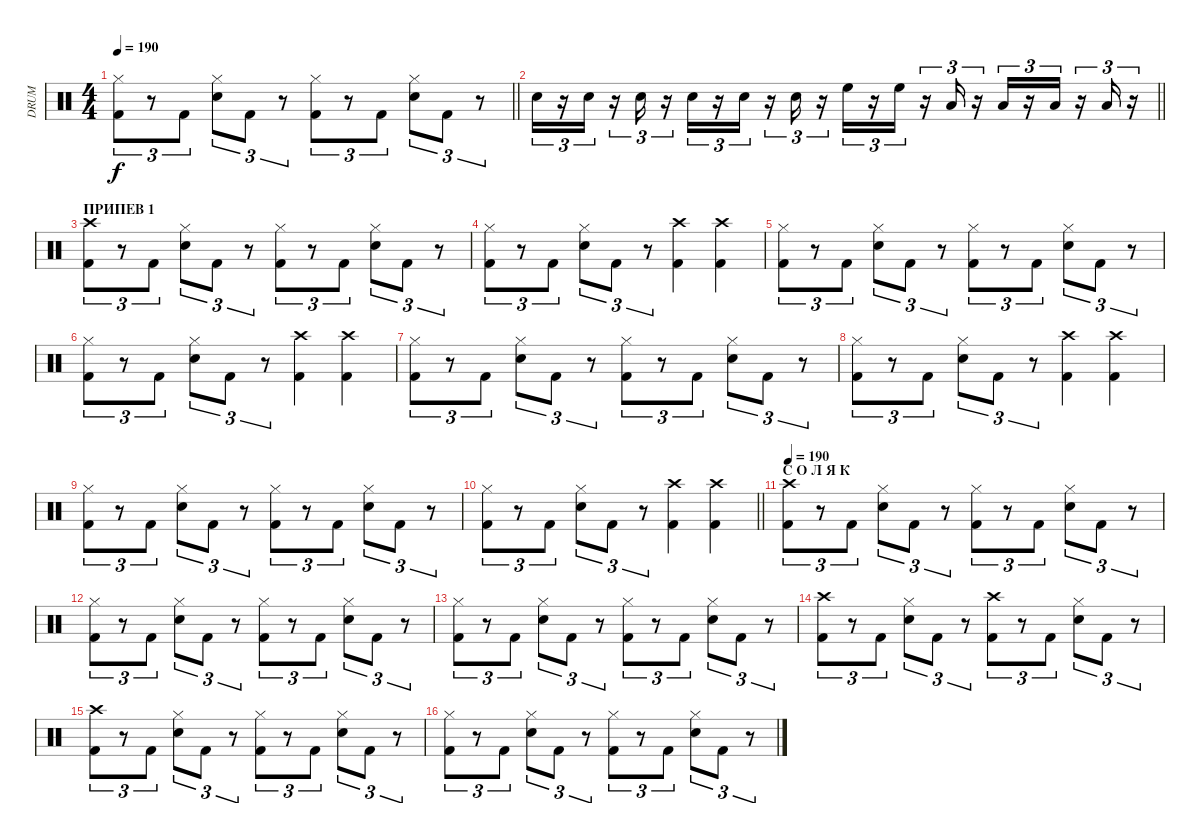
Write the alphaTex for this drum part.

\track ("DRUM" "DRUM") {instrument percussion bank 127}
\staff {score}
\articulation defaults
\ts (4 4)
\tempo 190
\clef neutral
\barLineRight lightlight
\ks c
("Hi-Hat (closed)" "Kick (hit) 2").8{tu (3 2) dy f} r.8{tu (3 2)} "Kick (hit) 2".8{tu (3 2)} ("Hi-Hat (closed)" "Electric Snare (hit)").8{tu (3 2)} "Kick (hit) 2".8{tu (3 2)} r.8{tu (3 2)} ("Hi-Hat (closed)" "Kick (hit) 2").8{tu (3 2)} r.8{tu (3 2)} "Kick (hit) 2".8{tu (3 2)} ("Hi-Hat (closed)" "Electric Snare (hit)").8{tu (3 2)} "Kick (hit) 2".8{tu (3 2)} r.8{tu (3 2)} |
\barLineRight lightlight "Electric Snare (hit)".16{tu (3 2)}
r.16{tu (3 2)} "Electric Snare (hit)".16{tu (3 2)} r.16{tu (3 2)} "Electric Snare (hit)".16{tu (3 2)} r.16{tu (3 2)} "Electric Snare (hit)".16{tu (3 2)} r.16{tu (3 2)} "Electric Snare (hit)".16{tu (3 2)} r.16{tu (3 2)} "Electric Snare (hit)".16{tu (3 2)} r.16{tu (3 2)} "High Floor Tom (hit)".16{tu (3 2)} r.16{tu (3 2)} "High Floor Tom (hit)".16{tu (3 2)} r.16{tu (3 2)} "Low Tom (hit)".16{tu (3 2)} r.16{tu (3 2)} "Low Tom (hit)".16{tu (3 2)} r.16{tu (3 2)} "Low Tom (hit)".16{tu (3 2)} r.16{tu (3 2)} "Low Tom (hit)".16{tu (3 2)} r.16{tu (3 2)} |
\section ("" "ПРИПЕВ 1")
("Crash high (hit)" "Kick (hit) 2").8{tu (3 2)} r.8{tu (3 2)} "Kick (hit) 2".8{tu (3 2)} ("Hi-Hat (closed)" "Electric Snare (hit)").8{tu (3 2)} "Kick (hit) 2".8{tu (3 2)} r.8{tu (3 2)} ("Hi-Hat (closed)" "Kick (hit) 2").8{tu (3 2)} r.8{tu (3 2)} "Kick (hit) 2".8{tu (3 2)} ("Hi-Hat (closed)" "Electric Snare (hit)").8{tu (3 2)} "Kick (hit) 2".8{tu (3 2)} r.8{tu (3 2)} |
("Hi-Hat (closed)" "Kick (hit) 2").8{tu (3 2)} r.8{tu (3 2)} "Kick (hit) 2".8{tu (3 2)} ("Hi-Hat (closed)" "Electric Snare (hit)").8{tu (3 2)} "Kick (hit) 2".8{tu (3 2)} r.8{tu (3 2)} ("Crash high (hit)" "Kick (hit) 2").4 ("Crash high (hit)" "Kick (hit) 2").4 |
("Hi-Hat (closed)" "Kick (hit) 2").8{tu (3 2)} r.8{tu (3 2)} "Kick (hit) 2".8{tu (3 2)} ("Hi-Hat (closed)" "Electric Snare (hit)").8{tu (3 2)} "Kick (hit) 2".8{tu (3 2)} r.8{tu (3 2)} ("Hi-Hat (closed)" "Kick (hit) 2").8{tu (3 2)} r.8{tu (3 2)} "Kick (hit) 2".8{tu (3 2)} ("Hi-Hat (closed)" "Electric Snare (hit)").8{tu (3 2)} "Kick (hit) 2".8{tu (3 2)} r.8{tu (3 2)} |
("Hi-Hat (closed)" "Kick (hit) 2").8{tu (3 2)} r.8{tu (3 2)} "Kick (hit) 2".8{tu (3 2)} ("Hi-Hat (closed)" "Electric Snare (hit)").8{tu (3 2)} "Kick (hit) 2".8{tu (3 2)} r.8{tu (3 2)} ("Crash high (hit)" "Kick (hit) 2").4 ("Crash high (hit)" "Kick (hit) 2").4 |
("Hi-Hat (closed)" "Kick (hit) 2").8{tu (3 2)} r.8{tu (3 2)} "Kick (hit) 2".8{tu (3 2)} ("Hi-Hat (closed)" "Electric Snare (hit)").8{tu (3 2)} "Kick (hit) 2".8{tu (3 2)} r.8{tu (3 2)} ("Hi-Hat (closed)" "Kick (hit) 2").8{tu (3 2)} r.8{tu (3 2)} "Kick (hit) 2".8{tu (3 2)} ("Hi-Hat (closed)" "Electric Snare (hit)").8{tu (3 2)} "Kick (hit) 2".8{tu (3 2)} r.8{tu (3 2)} |
("Hi-Hat (closed)" "Kick (hit) 2").8{tu (3 2)} r.8{tu (3 2)} "Kick (hit) 2".8{tu (3 2)} ("Hi-Hat (closed)" "Electric Snare (hit)").8{tu (3 2)} "Kick (hit) 2".8{tu (3 2)} r.8{tu (3 2)} ("Crash high (hit)" "Kick (hit) 2").4 ("Crash high (hit)" "Kick (hit) 2").4 |
("Hi-Hat (closed)" "Kick (hit) 2").8{tu (3 2)} r.8{tu (3 2)} "Kick (hit) 2".8{tu (3 2)} ("Hi-Hat (closed)" "Electric Snare (hit)").8{tu (3 2)} "Kick (hit) 2".8{tu (3 2)} r.8{tu (3 2)} ("Hi-Hat (closed)" "Kick (hit) 2").8{tu (3 2)} r.8{tu (3 2)} "Kick (hit) 2".8{tu (3 2)} ("Hi-Hat (closed)" "Electric Snare (hit)").8{tu (3 2)} "Kick (hit) 2".8{tu (3 2)} r.8{tu (3 2)} |
\barLineRight lightlight
("Hi-Hat (closed)" "Kick (hit) 2").8{tu (3 2)} r.8{tu (3 2)} "Kick (hit) 2".8{tu (3 2)} ("Hi-Hat (closed)" "Electric Snare (hit)").8{tu (3 2)} "Kick (hit) 2".8{tu (3 2)} r.8{tu (3 2)} ("Crash high (hit)" "Kick (hit) 2").4 ("Crash high (hit)" "Kick (hit) 2").4 |
\section ("" "С О Л Я К")
\tempo 190
("Crash high (hit)" "Kick (hit) 2").8{tu (3 2)} r.8{tu (3 2)} "Kick (hit) 2".8{tu (3 2)} ("Hi-Hat (closed)" "Electric Snare (hit)").8{tu (3 2)} "Kick (hit) 2".8{tu (3 2)} r.8{tu (3 2)} ("Hi-Hat (closed)" "Kick (hit) 2").8{tu (3 2)} r.8{tu (3 2)} "Kick (hit) 2".8{tu (3 2)} ("Hi-Hat (closed)" "Electric Snare (hit)").8{tu (3 2)} "Kick (hit) 2".8{tu (3 2)} r.8{tu (3 2)} |
("Hi-Hat (closed)" "Kick (hit) 2").8{tu (3 2)} r.8{tu (3 2)} "Kick (hit) 2".8{tu (3 2)} ("Hi-Hat (closed)" "Electric Snare (hit)").8{tu (3 2)} "Kick (hit) 2".8{tu (3 2)} r.8{tu (3 2)} ("Hi-Hat (closed)" "Kick (hit) 2").8{tu (3 2)} r.8{tu (3 2)} "Kick (hit) 2".8{tu (3 2)} ("Hi-Hat (closed)" "Electric Snare (hit)").8{tu (3 2)} "Kick (hit) 2".8{tu (3 2)} r.8{tu (3 2)} |
("Hi-Hat (closed)" "Kick (hit) 2").8{tu (3 2)} r.8{tu (3 2)} "Kick (hit) 2".8{tu (3 2)} ("Hi-Hat (closed)" "Electric Snare (hit)").8{tu (3 2)} "Kick (hit) 2".8{tu (3 2)} r.8{tu (3 2)} ("Hi-Hat (closed)" "Kick (hit) 2").8{tu (3 2)} r.8{tu (3 2)} "Kick (hit) 2".8{tu (3 2)} ("Hi-Hat (closed)" "Electric Snare (hit)").8{tu (3 2)} "Kick (hit) 2".8{tu (3 2)} r.8{tu (3 2)} |
("Crash high (hit)" "Kick (hit) 2").8{tu (3 2)} r.8{tu (3 2)} "Kick (hit) 2".8{tu (3 2)} ("Hi-Hat (closed)" "Electric Snare (hit)").8{tu (3 2)} "Kick (hit) 2".8{tu (3 2)} r.8{tu (3 2)} ("Crash high (hit)" "Kick (hit) 2").8{tu (3 2)} r.8{tu (3 2)} "Kick (hit) 2".8{tu (3 2)} ("Hi-Hat (closed)" "Electric Snare (hit)").8{tu (3 2)} "Kick (hit) 2".8{tu (3 2)} r.8{tu (3 2)} |
("Crash high (hit)" "Kick (hit) 2").8{tu (3 2)} r.8{tu (3 2)} "Kick (hit) 2".8{tu (3 2)} ("Hi-Hat (closed)" "Electric Snare (hit)").8{tu (3 2)} "Kick (hit) 2".8{tu (3 2)} r.8{tu (3 2)} ("Hi-Hat (closed)" "Kick (hit) 2").8{tu (3 2)} r.8{tu (3 2)} "Kick (hit) 2".8{tu (3 2)} ("Hi-Hat (closed)" "Electric Snare (hit)").8{tu (3 2)} "Kick (hit) 2".8{tu (3 2)} r.8{tu (3 2)} |
("Hi-Hat (closed)" "Kick (hit) 2").8{tu (3 2)} r.8{tu (3 2)} "Kick (hit) 2".8{tu (3 2)} ("Hi-Hat (closed)" "Electric Snare (hit)").8{tu (3 2)} "Kick (hit) 2".8{tu (3 2)} r.8{tu (3 2)} ("Hi-Hat (closed)" "Kick (hit) 2").8{tu (3 2)} r.8{tu (3 2)} "Kick (hit) 2".8{tu (3 2)} ("Hi-Hat (closed)" "Electric Snare (hit)").8{tu (3 2)} "Kick (hit) 2".8{tu (3 2)} r.8{tu (3 2)}
